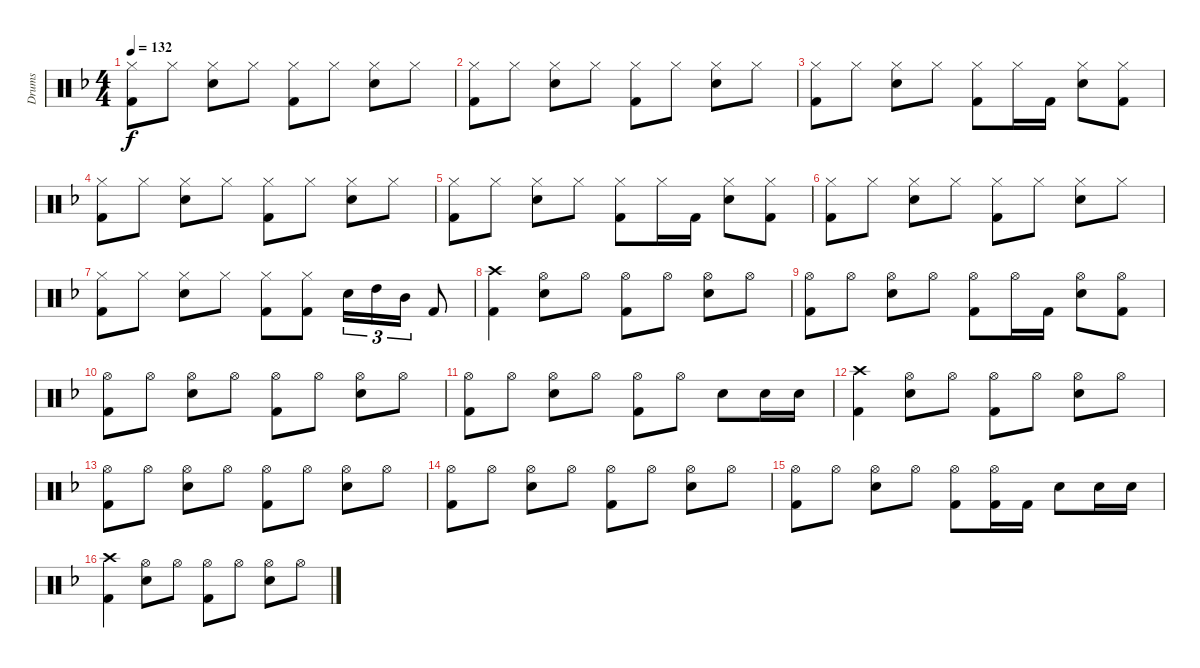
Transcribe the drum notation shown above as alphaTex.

\track ("Drums " "Drums ") {instrument percussion}
\staff {score}
\articulation defaults
\ts (4 4)
\tempo 132
\clef neutral
\ks dminor
("Kick (hit) 2" "Hi-Hat (closed)").8{dy f} "Hi-Hat (closed)".8 ("Snare (hit) 2" "Hi-Hat (closed)").8 "Hi-Hat (closed)".8 ("Kick (hit) 2" "Hi-Hat (closed)").8 "Hi-Hat (closed)".8 ("Snare (hit) 2" "Hi-Hat (closed)").8 "Hi-Hat (closed)".8 |
("Kick (hit) 2" "Hi-Hat (closed)").8 "Hi-Hat (closed)".8 ("Snare (hit) 2" "Hi-Hat (closed)").8 "Hi-Hat (closed)".8 ("Kick (hit) 2" "Hi-Hat (closed)").8 "Hi-Hat (closed)".8 ("Snare (hit) 2" "Hi-Hat (closed)").8 "Hi-Hat (closed)".8 |
("Kick (hit) 2" "Hi-Hat (closed)").8 "Hi-Hat (closed)".8 ("Snare (hit) 2" "Hi-Hat (closed)").8 "Hi-Hat (closed)".8 ("Kick (hit) 2" "Hi-Hat (closed)").8 "Hi-Hat (closed)".16 "Kick (hit) 2".16 ("Snare (hit) 2" "Hi-Hat (closed)").8 ("Kick (hit) 2" "Hi-Hat (closed)").8 |
("Kick (hit) 2" "Hi-Hat (closed)").8 "Hi-Hat (closed)".8 ("Snare (hit) 2" "Hi-Hat (closed)").8 "Hi-Hat (closed)".8 ("Kick (hit) 2" "Hi-Hat (closed)").8 "Hi-Hat (closed)".8 ("Snare (hit) 2" "Hi-Hat (closed)").8 "Hi-Hat (closed)".8 |
("Kick (hit) 2" "Hi-Hat (closed)").8 "Hi-Hat (closed)".8 ("Snare (hit) 2" "Hi-Hat (closed)").8 "Hi-Hat (closed)".8 ("Kick (hit) 2" "Hi-Hat (closed)").8 "Hi-Hat (closed)".16 "Kick (hit) 2".16 ("Snare (hit) 2" "Hi-Hat (closed)").8 ("Kick (hit) 2" "Hi-Hat (closed)").8 |
("Kick (hit) 2" "Hi-Hat (closed)").8 "Hi-Hat (closed)".8 ("Snare (hit) 2" "Hi-Hat (closed)").8 "Hi-Hat (closed)".8 ("Kick (hit) 2" "Hi-Hat (closed)").8 "Hi-Hat (closed)".8 ("Snare (hit) 2" "Hi-Hat (closed)").8 "Hi-Hat (closed)".8 |
("Kick (hit) 2" "Hi-Hat (closed)").8 "Hi-Hat (closed)".8 ("Snare (hit) 2" "Hi-Hat (closed)").8 "Hi-Hat (closed)".8 ("Kick (hit) 2" "Hi-Hat (closed)").8 ("Kick (hit) 2" "Hi-Hat (closed)").8 "Snare (hit) 2".16{tu (3 2)} "High Tom (hit)".16{tu (3 2)} "Mid Tom (hit)".16{tu (3 2)} "Kick (hit) 2".8 |
("Kick (hit) 2" "Crash high (hit)").4 ("Snare (hit) 2" "Hi-Hat (open)").8 "Hi-Hat (open)".8 ("Kick (hit) 2" "Hi-Hat (open)").8 "Hi-Hat (open)".8 ("Snare (hit) 2" "Hi-Hat (open)").8 "Hi-Hat (open)".8 |
("Kick (hit) 2" "Hi-Hat (open)").8 "Hi-Hat (open)".8 ("Snare (hit) 2" "Hi-Hat (open)").8 "Hi-Hat (open)".8 ("Kick (hit) 2" "Hi-Hat (open)").8 "Hi-Hat (open)".16 "Kick (hit) 2".16 ("Snare (hit) 2" "Hi-Hat (open)").8 ("Kick (hit) 2" "Hi-Hat (open)").8 |
("Kick (hit) 2" "Hi-Hat (open)").8 "Hi-Hat (open)".8 ("Snare (hit) 2" "Hi-Hat (open)").8 "Hi-Hat (open)".8 ("Kick (hit) 2" "Hi-Hat (open)").8 "Hi-Hat (open)".8 ("Snare (hit) 2" "Hi-Hat (open)").8 "Hi-Hat (open)".8 |
("Kick (hit) 2" "Hi-Hat (open)").8 "Hi-Hat (open)".8 ("Snare (hit) 2" "Hi-Hat (open)").8 "Hi-Hat (open)".8 ("Kick (hit) 2" "Hi-Hat (open)").8 "Hi-Hat (open)".8 "Snare (hit) 2".8 "Snare (hit) 2".16 "Snare (hit) 2".16 |
("Kick (hit) 2" "Crash high (hit)").4 ("Snare (hit) 2" "Hi-Hat (open)").8 "Hi-Hat (open)".8 ("Kick (hit) 2" "Hi-Hat (open)").8 "Hi-Hat (open)".8 ("Snare (hit) 2" "Hi-Hat (open)").8 "Hi-Hat (open)".8 |
("Kick (hit) 2" "Hi-Hat (open)").8 "Hi-Hat (open)".8 ("Snare (hit) 2" "Hi-Hat (open)").8 "Hi-Hat (open)".8 ("Kick (hit) 2" "Hi-Hat (open)").8 "Hi-Hat (open)".8 ("Snare (hit) 2" "Hi-Hat (open)").8 "Hi-Hat (open)".8 |
("Kick (hit) 2" "Hi-Hat (open)").8 "Hi-Hat (open)".8 ("Snare (hit) 2" "Hi-Hat (open)").8 "Hi-Hat (open)".8 ("Kick (hit) 2" "Hi-Hat (open)").8 "Hi-Hat (open)".8 ("Snare (hit) 2" "Hi-Hat (open)").8 "Hi-Hat (open)".8 |
("Kick (hit) 2" "Hi-Hat (open)").8 "Hi-Hat (open)".8 ("Snare (hit) 2" "Hi-Hat (open)").8 "Hi-Hat (open)".8 ("Kick (hit) 2" "Hi-Hat (open)").8 ("Kick (hit) 2" "Hi-Hat (open)").16 "Kick (hit) 2".16 "Snare (hit) 2".8 "Snare (hit) 2".16 "Snare (hit) 2".16 |
("Kick (hit) 2" "Crash high (hit)").4 ("Snare (hit) 2" "Hi-Hat (open)").8 "Hi-Hat (open)".8 ("Kick (hit) 2" "Hi-Hat (open)").8 "Hi-Hat (open)".8 ("Snare (hit) 2" "Hi-Hat (open)").8 "Hi-Hat (open)".8
